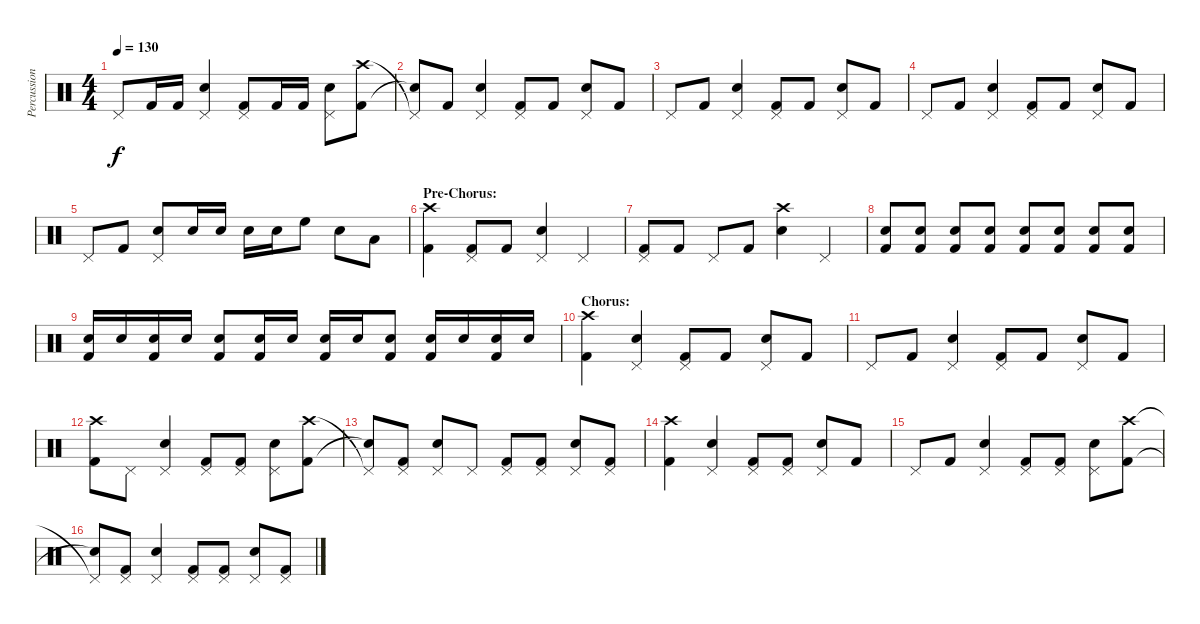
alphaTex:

\track ("Percussion" "Percussion") {instrument percussion}
\staff {score}
\articulation defaults
\ts (4 4)
\tempo 130
\clef neutral
\ks c "Pedal Hi-Hat (hit)".8{dy f} "Kick (hit) 2".16 "Kick (hit) 2".16
("Pedal Hi-Hat (hit)" "Electric Snare (hit)").4 ("Pedal Hi-Hat (hit)" "Kick (hit) 2").8 "Kick (hit) 2".16 "Kick (hit) 2".16 ("Pedal Hi-Hat (hit)" "Electric Snare (hit)").8 ("Crash high (hit)" "Kick (hit) 2").8 |
("Pedal Hi-Hat (hit)"{t} "Snare (hit)"{t}).8 "Kick (hit) 2".8 ("Pedal Hi-Hat (hit)" "Electric Snare (hit)").4 ("Pedal Hi-Hat (hit)" "Kick (hit) 2").8 "Kick (hit) 2".8 ("Pedal Hi-Hat (hit)" "Electric Snare (hit)").8 "Kick (hit) 2".8 |
"Pedal Hi-Hat (hit)".8 "Kick (hit) 2".8 ("Pedal Hi-Hat (hit)" "Electric Snare (hit)").4 ("Pedal Hi-Hat (hit)" "Kick (hit) 2").8 "Kick (hit) 2".8 ("Pedal Hi-Hat (hit)" "Electric Snare (hit)").8 "Kick (hit) 2".8 |
"Pedal Hi-Hat (hit)".8 "Kick (hit) 2".8 ("Pedal Hi-Hat (hit)" "Electric Snare (hit)").4 ("Pedal Hi-Hat (hit)" "Kick (hit) 2").8 "Kick (hit) 2".8 ("Pedal Hi-Hat (hit)" "Electric Snare (hit)").8 "Kick (hit) 2".8 |
"Pedal Hi-Hat (hit)".8 "Kick (hit) 2".8 ("Pedal Hi-Hat (hit)" "Electric Snare (hit)").8 "Electric Snare (hit)".16 "Electric Snare (hit)".16 "Electric Snare (hit)".16 "Electric Snare (hit)".16 "High Floor Tom (hit)".8 "Electric Snare (hit)".8 "Low Tom (hit)".8 |
\section ("" "Pre-Chorus:")
("Crash high (hit)" "Kick (hit) 2").4 ("Pedal Hi-Hat (hit)" "Kick (hit) 2").8 "Kick (hit) 2".8 ("Pedal Hi-Hat (hit)" "Electric Snare (hit)").4 "Pedal Hi-Hat (hit)".4 |
("Pedal Hi-Hat (hit)" "Kick (hit) 2").8 "Kick (hit) 2".8 "Pedal Hi-Hat (hit)".8 "Kick (hit) 2".8 ("Crash high (hit)" "Electric Snare (hit)").4 "Pedal Hi-Hat (hit)".4 |
("Electric Snare (hit)" "Kick (hit) 2").8 ("Electric Snare (hit)" "Kick (hit) 2").8 ("Electric Snare (hit)" "Kick (hit) 2").8 ("Electric Snare (hit)" "Kick (hit) 2").8 ("Electric Snare (hit)" "Kick (hit) 2").8 ("Electric Snare (hit)" "Kick (hit) 2").8 ("Electric Snare (hit)" "Kick (hit) 2").8 ("Electric Snare (hit)" "Kick (hit) 2").8 |
("Electric Snare (hit)" "Kick (hit) 2").16 "Electric Snare (hit)".16 ("Electric Snare (hit)" "Kick (hit) 2").16 "Electric Snare (hit)".16 ("Electric Snare (hit)" "Kick (hit) 2").8 ("Electric Snare (hit)" "Kick (hit) 2").16 "Electric Snare (hit)".16 ("Electric Snare (hit)" "Kick (hit) 2").16 "Electric Snare (hit)".16 ("Electric Snare (hit)" "Kick (hit) 2").8 ("Electric Snare (hit)" "Kick (hit) 2").16 "Electric Snare (hit)".16 ("Electric Snare (hit)" "Kick (hit) 2").16 "Electric Snare (hit)".16 |
\section ("" "Chorus:")
("Crash high (hit)" "Kick (hit) 2").4 ("Pedal Hi-Hat (hit)" "Electric Snare (hit)").4 ("Pedal Hi-Hat (hit)" "Kick (hit) 2").8 "Kick (hit) 2".8 ("Pedal Hi-Hat (hit)" "Electric Snare (hit)").8 "Kick (hit) 2".8 |
"Pedal Hi-Hat (hit)".8 "Kick (hit) 2".8 ("Pedal Hi-Hat (hit)" "Electric Snare (hit)").4 ("Pedal Hi-Hat (hit)" "Kick (hit) 2").8 "Kick (hit) 2".8 ("Pedal Hi-Hat (hit)" "Electric Snare (hit)").8 "Kick (hit) 2".8 |
("Crash high (hit)" "Kick (hit) 2").8 "Pedal Hi-Hat (hit)".8 ("Pedal Hi-Hat (hit)" "Electric Snare (hit)").4 ("Pedal Hi-Hat (hit)" "Kick (hit) 2").8 ("Pedal Hi-Hat (hit)" "Kick (hit) 2").8 ("Pedal Hi-Hat (hit)" "Electric Snare (hit)").8 ("Crash high (hit)" "Kick (hit) 2").8 |
("Pedal Hi-Hat (hit)"{t} "Snare (hit)"{t}).8 ("Pedal Hi-Hat (hit)" "Kick (hit) 2").8 ("Pedal Hi-Hat (hit)" "Electric Snare (hit)").8 "Pedal Hi-Hat (hit)".8 ("Pedal Hi-Hat (hit)" "Kick (hit) 2").8 ("Pedal Hi-Hat (hit)" "Kick (hit) 2").8 ("Pedal Hi-Hat (hit)" "Electric Snare (hit)").8 ("Pedal Hi-Hat (hit)" "Kick (hit) 2").8 |
("Crash high (hit)" "Kick (hit) 2").4 ("Pedal Hi-Hat (hit)" "Electric Snare (hit)").4 ("Pedal Hi-Hat (hit)" "Kick (hit) 2").8 ("Pedal Hi-Hat (hit)" "Kick (hit) 2").8 ("Pedal Hi-Hat (hit)" "Electric Snare (hit)").8 "Kick (hit) 2".8 |
"Pedal Hi-Hat (hit)".8 "Kick (hit) 2".8 ("Pedal Hi-Hat (hit)" "Electric Snare (hit)").4 ("Pedal Hi-Hat (hit)" "Kick (hit) 2").8 ("Pedal Hi-Hat (hit)" "Kick (hit) 2").8 ("Pedal Hi-Hat (hit)" "Electric Snare (hit)").8 ("Crash high (hit)" "Kick (hit) 2").8 |
("Pedal Hi-Hat (hit)"{t} "Snare (hit)"{t}).8 ("Pedal Hi-Hat (hit)" "Kick (hit) 2").8 ("Pedal Hi-Hat (hit)" "Electric Snare (hit)").4 ("Pedal Hi-Hat (hit)" "Kick (hit) 2").8 ("Pedal Hi-Hat (hit)" "Kick (hit) 2").8 ("Pedal Hi-Hat (hit)" "Electric Snare (hit)").8 ("Pedal Hi-Hat (hit)" "Kick (hit) 2").8
